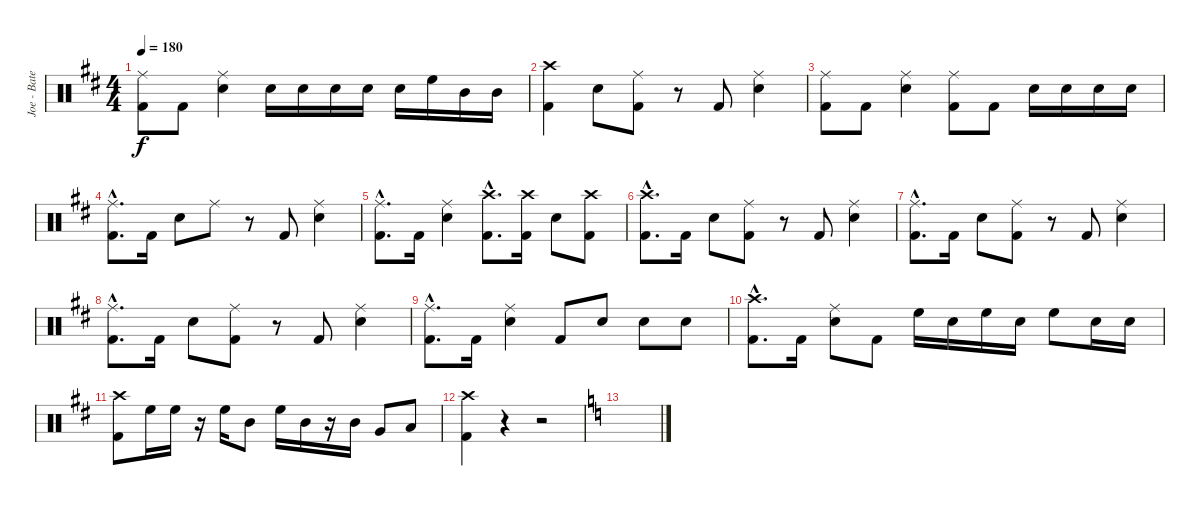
\track ("Joe - Batería -" "Joe - Bate") {instrument percussion}
\staff {score}
\articulation defaults
\ts (4 4)
\tempo 180
\clef neutral
\ks bminor
("Ride (middle)" "Kick (hit) 2").8{dy f} "Kick (hit) 2".8 ("Ride (middle)" "Snare (hit) 2").4 "Snare (hit) 2".16 "Snare (hit) 2".16 "Snare (hit) 2".16 "Snare (hit) 2".16 "Snare (hit) 2".16 "High Floor Tom (hit)".16 "Mid Tom (hit)".16 "Mid Tom (hit)".16 |
("Crash high (hit)" "Kick (hit) 2").4 "Snare (hit) 2".8 ("Ride (middle)" "Kick (hit) 2").8 r.8 "Kick (hit) 2".8 ("Ride (middle)" "Snare (hit) 2").4 |
("Ride (middle)" "Kick (hit) 2").8 "Kick (hit) 2".8 ("Ride (middle)" "Snare (hit) 2").4 ("Ride (middle)" "Kick (hit) 2").8 "Kick (hit) 2".8 "Snare (hit) 2".16 "Snare (hit) 2".16 "Snare (hit) 2".16 "Snare (hit) 2".16 |
("Ride (middle)"{hac} "Kick (hit) 2"{hac}).8{d} "Kick (hit) 2".16 "Snare (hit) 2".8 "Ride (middle)".8 r.8 "Kick (hit) 2".8 ("Ride (middle)" "Snare (hit) 2").4 |
("Ride (middle)"{hac} "Kick (hit) 2"{hac}).8{d} "Kick (hit) 2".16 ("Ride (middle)" "Snare (hit) 2").4 ("Crash high (hit)"{hac} "Kick (hit) 2"{hac}).8{d} ("Crash high (hit)" "Kick (hit) 2").16 "Snare (hit) 2".8 ("Crash high (hit)" "Kick (hit) 2").8 |
("Crash high (hit)"{hac} "Kick (hit) 2"{hac}).8{d} "Kick (hit) 2".16 "Snare (hit) 2".8 ("Ride (middle)" "Kick (hit) 2").8 r.8 "Kick (hit) 2".8 ("Ride (middle)" "Snare (hit) 2").4 |
("Ride (middle)"{hac} "Kick (hit) 2"{hac}).8{d} "Kick (hit) 2".16 "Snare (hit) 2".8 ("Ride (middle)" "Kick (hit) 2").8 r.8 "Kick (hit) 2".8 ("Ride (middle)" "Snare (hit) 2").4 |
("Ride (middle)"{hac} "Kick (hit) 2"{hac}).8{d} "Kick (hit) 2".16 "Snare (hit) 2".8 ("Ride (middle)" "Kick (hit) 2").8 r.8 "Kick (hit) 2".8 ("Ride (middle)" "Snare (hit) 2").4 |
("Ride (middle)"{hac} "Kick (hit) 2"{hac}).8{d} "Kick (hit) 2".16 ("Ride (middle)" "Snare (hit) 2").4 "Kick (hit) 2".8 "Snare (hit) 2".8 "Snare (hit) 2".8 "Snare (hit) 2".8 |
("Crash high (hit)"{hac} "Kick (hit) 2"{hac}).8{d} "Kick (hit) 2".16 ("Ride (middle)" "Snare (hit) 2").8 "Kick (hit) 2".8 "High Floor Tom (hit)".16 "Snare (hit) 2".16 "High Floor Tom (hit)".16 "Snare (hit) 2".16 "High Floor Tom (hit)".8 "Snare (hit) 2".16 "Snare (hit) 2".16 |
("Crash high (hit)" "Kick (hit) 2").8 "High Floor Tom (hit)".16 "High Floor Tom (hit)".16 r.16 "High Floor Tom (hit)".16 "Mid Tom (hit)".8 "High Floor Tom (hit)".16 "Mid Tom (hit)".16 r.16 "Mid Tom (hit)".16 "Very Low Tom (hit)".8 "Low Floor Tom (hit)".8 |
("Crash high (hit)" "Kick (hit) 2").4 r.4 r.2 |
\ks c
